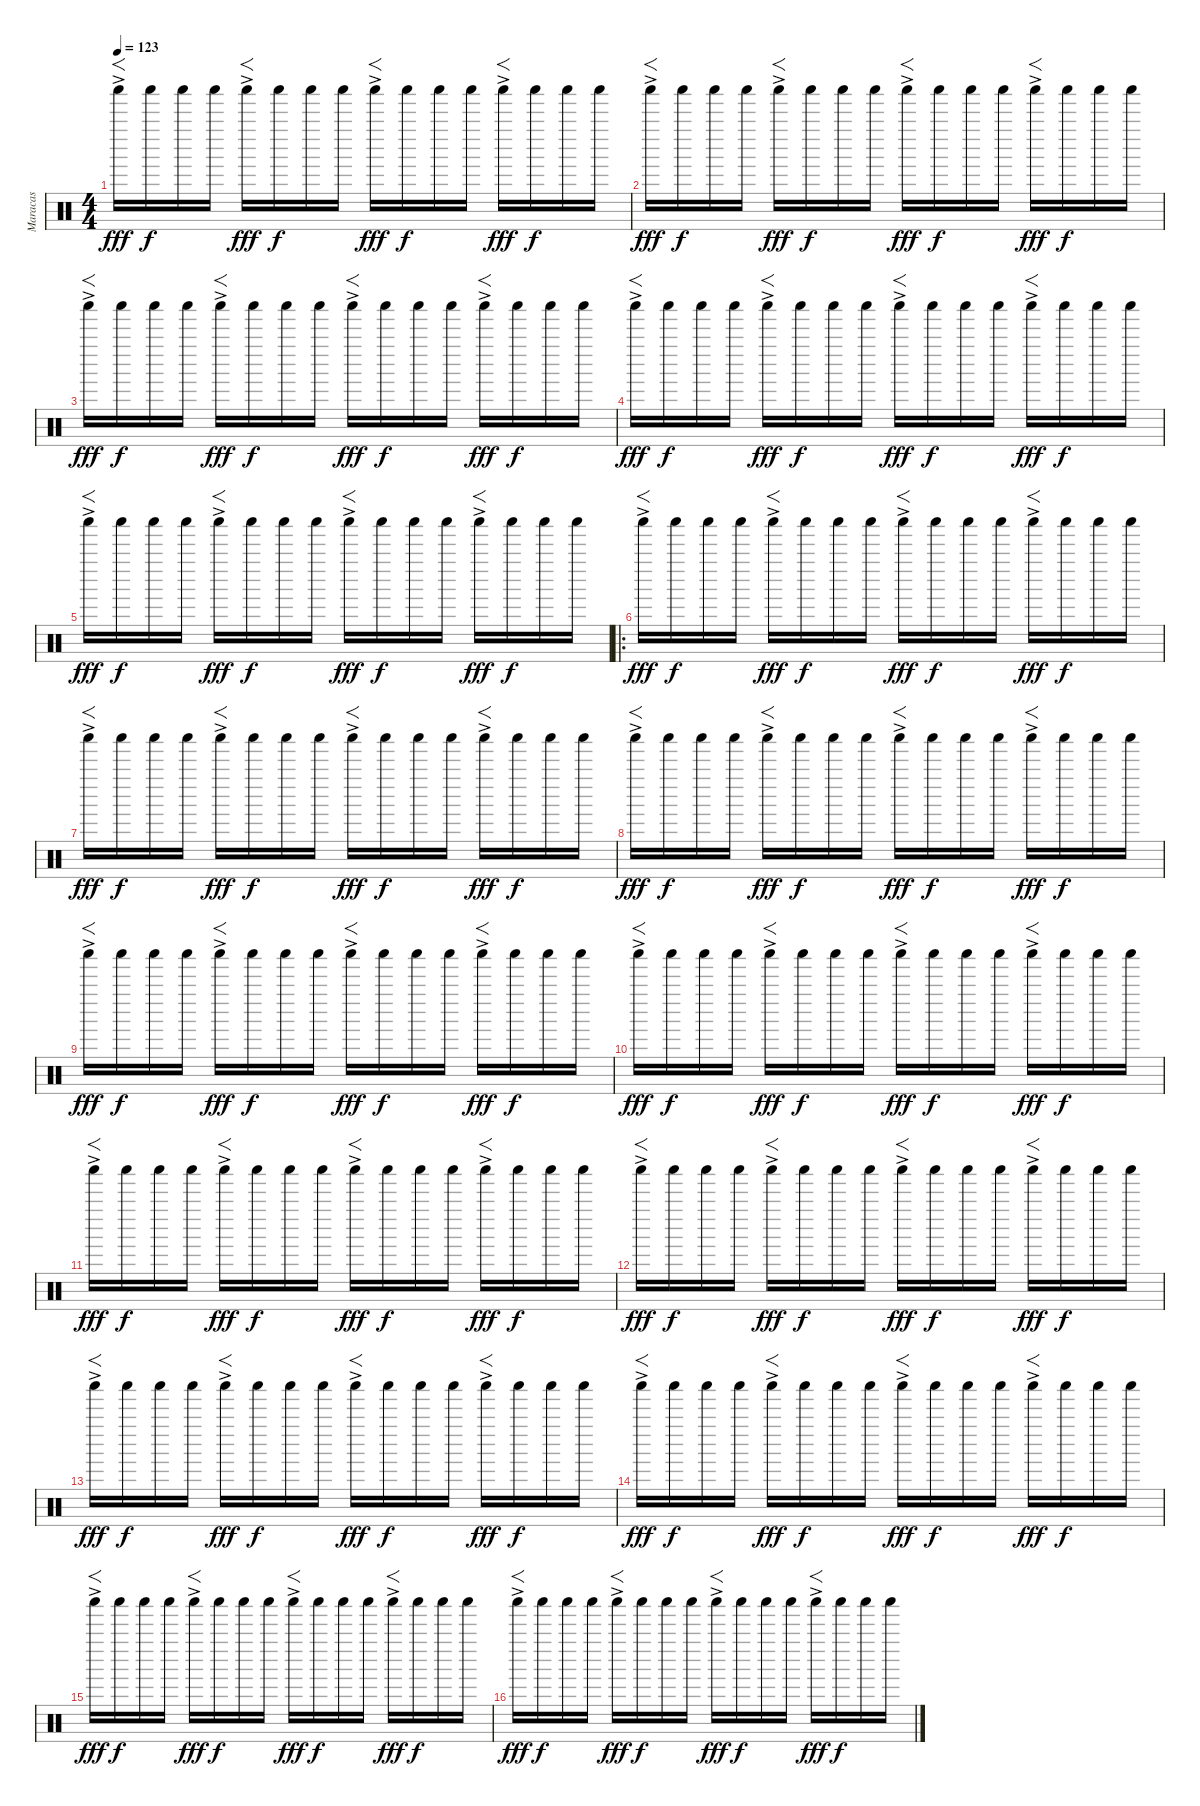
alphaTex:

\track ("Maracas" "Maracas") {instrument percussion}
\staff {score}
\articulation defaults
\ts (4 4)
\tempo 123
\clef neutral
\ks c "Shaker (hit)"{ac}.16{f dy fff} "Shaker (hit)".16{dy f} "Shaker (hit)".16 "Shaker (hit)".16 "Shaker (hit)"{ac}.16{f dy fff} "Shaker (hit)".16{dy f} "Shaker (hit)".16 "Shaker (hit)".16 "Shaker (hit)"{ac}.16{f dy fff} "Shaker (hit)".16{dy f} "Shaker (hit)".16 "Shaker (hit)".16 "Shaker (hit)"{ac}.16{f dy fff} "Shaker (hit)".16{dy f} "Shaker (hit)".16 "Shaker (hit)".16
|
"Shaker (hit)"{ac}.16{f dy fff} "Shaker (hit)".16{dy f} "Shaker (hit)".16 "Shaker (hit)".16 "Shaker (hit)"{ac}.16{f dy fff} "Shaker (hit)".16{dy f} "Shaker (hit)".16 "Shaker (hit)".16 "Shaker (hit)"{ac}.16{f dy fff} "Shaker (hit)".16{dy f} "Shaker (hit)".16 "Shaker (hit)".16 "Shaker (hit)"{ac}.16{f dy fff} "Shaker (hit)".16{dy f} "Shaker (hit)".16 "Shaker (hit)".16 |
"Shaker (hit)"{ac}.16{f dy fff} "Shaker (hit)".16{dy f} "Shaker (hit)".16 "Shaker (hit)".16 "Shaker (hit)"{ac}.16{f dy fff} "Shaker (hit)".16{dy f} "Shaker (hit)".16 "Shaker (hit)".16 "Shaker (hit)"{ac}.16{f dy fff} "Shaker (hit)".16{dy f} "Shaker (hit)".16 "Shaker (hit)".16 "Shaker (hit)"{ac}.16{f dy fff} "Shaker (hit)".16{dy f} "Shaker (hit)".16 "Shaker (hit)".16 |
"Shaker (hit)"{ac}.16{f dy fff} "Shaker (hit)".16{dy f} "Shaker (hit)".16 "Shaker (hit)".16 "Shaker (hit)"{ac}.16{f dy fff} "Shaker (hit)".16{dy f} "Shaker (hit)".16 "Shaker (hit)".16 "Shaker (hit)"{ac}.16{f dy fff} "Shaker (hit)".16{dy f} "Shaker (hit)".16 "Shaker (hit)".16 "Shaker (hit)"{ac}.16{f dy fff} "Shaker (hit)".16{dy f} "Shaker (hit)".16 "Shaker (hit)".16 |
"Shaker (hit)"{ac}.16{f dy fff} "Shaker (hit)".16{dy f} "Shaker (hit)".16 "Shaker (hit)".16 "Shaker (hit)"{ac}.16{f dy fff} "Shaker (hit)".16{dy f} "Shaker (hit)".16 "Shaker (hit)".16 "Shaker (hit)"{ac}.16{f dy fff} "Shaker (hit)".16{dy f} "Shaker (hit)".16 "Shaker (hit)".16 "Shaker (hit)"{ac}.16{f dy fff} "Shaker (hit)".16{dy f} "Shaker (hit)".16 "Shaker (hit)".16 |
\ro "Shaker (hit)"{ac}.16{f dy fff} "Shaker (hit)".16{dy f} "Shaker (hit)".16 "Shaker (hit)".16 "Shaker (hit)"{ac}.16{f dy fff} "Shaker (hit)".16{dy f} "Shaker (hit)".16 "Shaker (hit)".16 "Shaker (hit)"{ac}.16{f dy fff} "Shaker (hit)".16{dy f} "Shaker (hit)".16 "Shaker (hit)".16 "Shaker (hit)"{ac}.16{f dy fff} "Shaker (hit)".16{dy f} "Shaker (hit)".16 "Shaker (hit)".16
|
"Shaker (hit)"{ac}.16{f dy fff} "Shaker (hit)".16{dy f} "Shaker (hit)".16 "Shaker (hit)".16 "Shaker (hit)"{ac}.16{f dy fff} "Shaker (hit)".16{dy f} "Shaker (hit)".16 "Shaker (hit)".16 "Shaker (hit)"{ac}.16{f dy fff} "Shaker (hit)".16{dy f} "Shaker (hit)".16 "Shaker (hit)".16 "Shaker (hit)"{ac}.16{f dy fff} "Shaker (hit)".16{dy f} "Shaker (hit)".16 "Shaker (hit)".16 |
"Shaker (hit)"{ac}.16{f dy fff} "Shaker (hit)".16{dy f} "Shaker (hit)".16 "Shaker (hit)".16 "Shaker (hit)"{ac}.16{f dy fff} "Shaker (hit)".16{dy f} "Shaker (hit)".16 "Shaker (hit)".16 "Shaker (hit)"{ac}.16{f dy fff} "Shaker (hit)".16{dy f} "Shaker (hit)".16 "Shaker (hit)".16 "Shaker (hit)"{ac}.16{f dy fff} "Shaker (hit)".16{dy f} "Shaker (hit)".16 "Shaker (hit)".16 |
"Shaker (hit)"{ac}.16{f dy fff} "Shaker (hit)".16{dy f} "Shaker (hit)".16 "Shaker (hit)".16 "Shaker (hit)"{ac}.16{f dy fff} "Shaker (hit)".16{dy f} "Shaker (hit)".16 "Shaker (hit)".16 "Shaker (hit)"{ac}.16{f dy fff} "Shaker (hit)".16{dy f} "Shaker (hit)".16 "Shaker (hit)".16 "Shaker (hit)"{ac}.16{f dy fff} "Shaker (hit)".16{dy f} "Shaker (hit)".16 "Shaker (hit)".16 |
"Shaker (hit)"{ac}.16{f dy fff} "Shaker (hit)".16{dy f} "Shaker (hit)".16 "Shaker (hit)".16 "Shaker (hit)"{ac}.16{f dy fff} "Shaker (hit)".16{dy f} "Shaker (hit)".16 "Shaker (hit)".16 "Shaker (hit)"{ac}.16{f dy fff} "Shaker (hit)".16{dy f} "Shaker (hit)".16 "Shaker (hit)".16 "Shaker (hit)"{ac}.16{f dy fff} "Shaker (hit)".16{dy f} "Shaker (hit)".16 "Shaker (hit)".16 |
"Shaker (hit)"{ac}.16{f dy fff} "Shaker (hit)".16{dy f} "Shaker (hit)".16 "Shaker (hit)".16 "Shaker (hit)"{ac}.16{f dy fff} "Shaker (hit)".16{dy f} "Shaker (hit)".16 "Shaker (hit)".16 "Shaker (hit)"{ac}.16{f dy fff} "Shaker (hit)".16{dy f} "Shaker (hit)".16 "Shaker (hit)".16 "Shaker (hit)"{ac}.16{f dy fff} "Shaker (hit)".16{dy f} "Shaker (hit)".16 "Shaker (hit)".16 |
"Shaker (hit)"{ac}.16{f dy fff} "Shaker (hit)".16{dy f} "Shaker (hit)".16 "Shaker (hit)".16 "Shaker (hit)"{ac}.16{f dy fff} "Shaker (hit)".16{dy f} "Shaker (hit)".16 "Shaker (hit)".16 "Shaker (hit)"{ac}.16{f dy fff} "Shaker (hit)".16{dy f} "Shaker (hit)".16 "Shaker (hit)".16 "Shaker (hit)"{ac}.16{f dy fff} "Shaker (hit)".16{dy f} "Shaker (hit)".16 "Shaker (hit)".16 |
"Shaker (hit)"{ac}.16{f dy fff} "Shaker (hit)".16{dy f} "Shaker (hit)".16 "Shaker (hit)".16 "Shaker (hit)"{ac}.16{f dy fff} "Shaker (hit)".16{dy f} "Shaker (hit)".16 "Shaker (hit)".16 "Shaker (hit)"{ac}.16{f dy fff} "Shaker (hit)".16{dy f} "Shaker (hit)".16 "Shaker (hit)".16 "Shaker (hit)"{ac}.16{f dy fff} "Shaker (hit)".16{dy f} "Shaker (hit)".16 "Shaker (hit)".16 |
"Shaker (hit)"{ac}.16{f dy fff} "Shaker (hit)".16{dy f} "Shaker (hit)".16 "Shaker (hit)".16 "Shaker (hit)"{ac}.16{f dy fff} "Shaker (hit)".16{dy f} "Shaker (hit)".16 "Shaker (hit)".16 "Shaker (hit)"{ac}.16{f dy fff} "Shaker (hit)".16{dy f} "Shaker (hit)".16 "Shaker (hit)".16 "Shaker (hit)"{ac}.16{f dy fff} "Shaker (hit)".16{dy f} "Shaker (hit)".16 "Shaker (hit)".16 |
"Shaker (hit)"{ac}.16{f dy fff} "Shaker (hit)".16{dy f} "Shaker (hit)".16 "Shaker (hit)".16 "Shaker (hit)"{ac}.16{f dy fff} "Shaker (hit)".16{dy f} "Shaker (hit)".16 "Shaker (hit)".16 "Shaker (hit)"{ac}.16{f dy fff} "Shaker (hit)".16{dy f} "Shaker (hit)".16 "Shaker (hit)".16 "Shaker (hit)"{ac}.16{f dy fff} "Shaker (hit)".16{dy f} "Shaker (hit)".16 "Shaker (hit)".16 |
"Shaker (hit)"{ac}.16{f dy fff} "Shaker (hit)".16{dy f} "Shaker (hit)".16 "Shaker (hit)".16 "Shaker (hit)"{ac}.16{f dy fff} "Shaker (hit)".16{dy f} "Shaker (hit)".16 "Shaker (hit)".16 "Shaker (hit)"{ac}.16{f dy fff} "Shaker (hit)".16{dy f} "Shaker (hit)".16 "Shaker (hit)".16 "Shaker (hit)"{ac}.16{f dy fff} "Shaker (hit)".16{dy f} "Shaker (hit)".16 "Shaker (hit)".16
